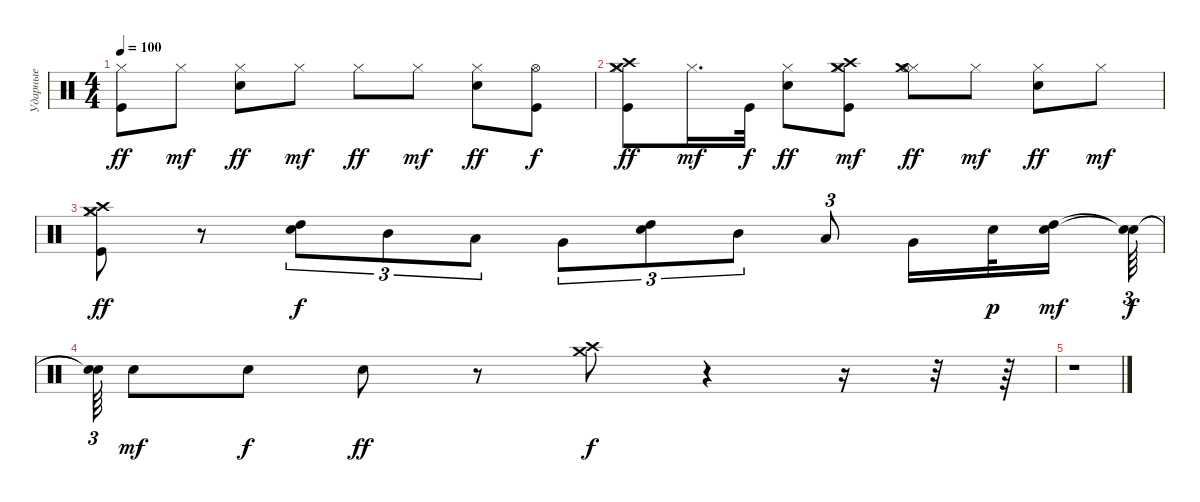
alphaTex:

\track ("Ударные" "Ударные") {instrument percussion}
\staff {score}
\articulation defaults
\ts (4 4)
\tempo 100
\clef neutral
\ks c
("Kick (hit)" "Hi-Hat (closed)").8{dy ff} "Hi-Hat (closed)".8{dy mf} ("Electric Snare (hit)" "Hi-Hat (closed)").8{dy ff} "Hi-Hat (closed)".8{dy mf} "Hi-Hat (closed)".8{dy ff} "Hi-Hat (closed)".8{dy mf} ("Electric Snare (hit)" "Hi-Hat (closed)").8{dy ff} ("Kick (hit)" "Hi-Hat (open)").8{dy f} |
("Kick (hit)" "Hi-Hat (closed)" "Crash high (hit)" "Crash medium (hit)").8{dy ff} "Hi-Hat (closed)".16{d dy mf} "Kick (hit)".32{dy f} ("Electric Snare (hit)" "Hi-Hat (closed)").8{dy ff} ("Kick (hit)" "Hi-Hat (closed)" "Crash high (hit)" "Crash medium (hit)").8{dy mf} ("Hi-Hat (closed)" "Hi-Hat (open)" "Crash medium (hit)").8{dy ff} "Hi-Hat (closed)".8{dy mf} ("Electric Snare (hit)" "Hi-Hat (closed)").8{dy ff} "Hi-Hat (closed)".8{dy mf} |
("Kick (hit)" "Hi-Hat (closed)" "Crash high (hit)" "Crash medium (hit)").8{dy ff} r.8 ("High Tom (hit)" "Electric Snare (hit)").8{tu (3 2) dy f} "Mid Tom (hit)".8{tu (3 2)} "Low Tom (hit)".8{tu (3 2)} "Very Low Tom (hit)".8{tu (3 2)} ("High Tom (hit)" "Electric Snare (hit)").8{tu (3 2)} "Mid Tom (hit)".8{tu (3 2)} "Low Tom (hit)".8{tu (3 2)} "Very Low Tom (hit)".16 "Electric Snare (hit)".32{dy p} ("High Tom (hit)" "Electric Snare (hit)").16{dy mf} ("Snare (hit)"{t} "Snare (hit)"{t}).64{tu (3 2) dy f} |
("Snare (hit)"{t} "Snare (hit)"{t}).64{tu (3 2)} "Electric Snare (hit)".8{dy mf} "Electric Snare (hit)".8{dy f} "Electric Snare (hit)".8{dy ff} r.8 ("Crash medium (hit)" "Crash high (hit)").8{dy f} r.4 r.16 r.32 r.64 |
r.1
